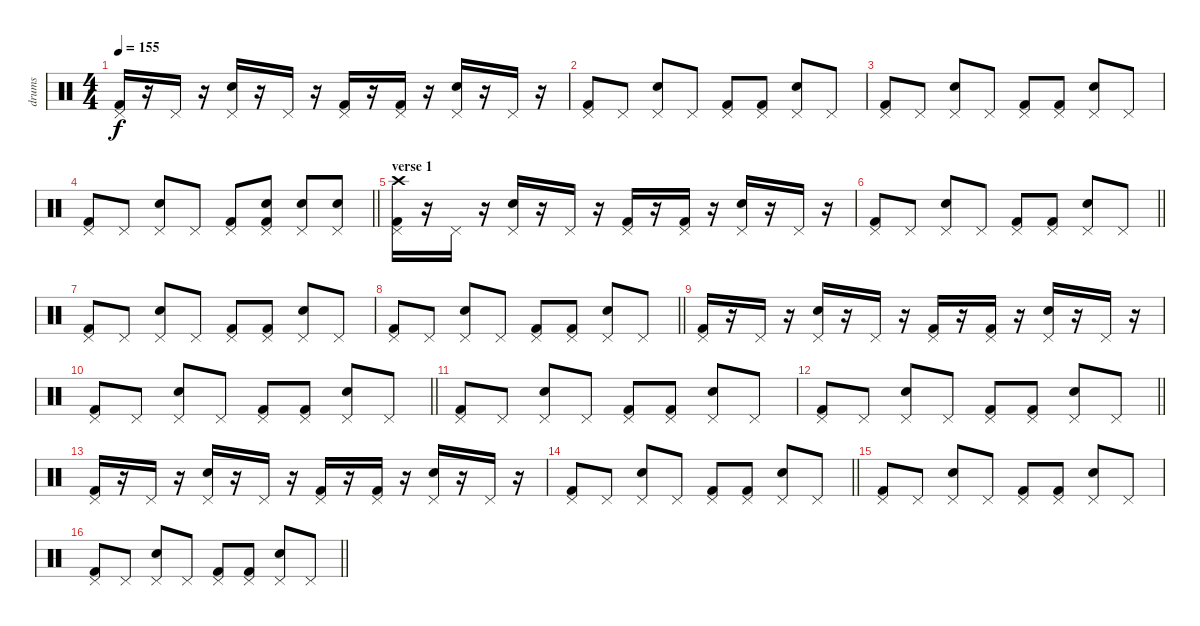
\track ("drums" "drums") {instrument percussion}
\staff {score}
\articulation defaults
\ts (4 4)
\tempo 155
\clef neutral
\ks c
("Kick (hit) 2" "Pedal Hi-Hat (hit)").16{dy f} r.16 "Pedal Hi-Hat (hit)".16 r.16 ("Electric Snare (hit)" "Pedal Hi-Hat (hit)").16 r.16 "Pedal Hi-Hat (hit)".16 r.16 ("Kick (hit) 2" "Pedal Hi-Hat (hit)").16 r.16 ("Kick (hit) 2" "Pedal Hi-Hat (hit)").16 r.16 ("Electric Snare (hit)" "Pedal Hi-Hat (hit)").16 r.16 "Pedal Hi-Hat (hit)".16 r.16 |
("Kick (hit) 2" "Pedal Hi-Hat (hit)").8 "Pedal Hi-Hat (hit)".8 ("Electric Snare (hit)" "Pedal Hi-Hat (hit)").8 "Pedal Hi-Hat (hit)".8 ("Kick (hit) 2" "Pedal Hi-Hat (hit)").8 ("Kick (hit) 2" "Pedal Hi-Hat (hit)").8 ("Electric Snare (hit)" "Pedal Hi-Hat (hit)").8 "Pedal Hi-Hat (hit)".8 |
("Kick (hit) 2" "Pedal Hi-Hat (hit)").8 "Pedal Hi-Hat (hit)".8 ("Electric Snare (hit)" "Pedal Hi-Hat (hit)").8 "Pedal Hi-Hat (hit)".8 ("Kick (hit) 2" "Pedal Hi-Hat (hit)").8 ("Kick (hit) 2" "Pedal Hi-Hat (hit)").8 ("Electric Snare (hit)" "Pedal Hi-Hat (hit)").8 "Pedal Hi-Hat (hit)".8 |
\barLineRight lightlight
("Kick (hit) 2" "Pedal Hi-Hat (hit)").8 "Pedal Hi-Hat (hit)".8 ("Electric Snare (hit)" "Pedal Hi-Hat (hit)").8 "Pedal Hi-Hat (hit)".8 ("Kick (hit) 2" "Pedal Hi-Hat (hit)").8 ("Kick (hit) 2" "Electric Snare (hit)" "Pedal Hi-Hat (hit)").8 ("Electric Snare (hit)" "Pedal Hi-Hat (hit)").8 ("Electric Snare (hit)" "Pedal Hi-Hat (hit)").8 |
\section ("" "verse 1")
("Kick (hit) 2" "Pedal Hi-Hat (hit)" "Crash high (hit)").16 r.16 "Pedal Hi-Hat (hit)".16 r.16 ("Electric Snare (hit)" "Pedal Hi-Hat (hit)").16 r.16 "Pedal Hi-Hat (hit)".16 r.16 ("Kick (hit) 2" "Pedal Hi-Hat (hit)").16 r.16 ("Kick (hit) 2" "Pedal Hi-Hat (hit)").16 r.16 ("Electric Snare (hit)" "Pedal Hi-Hat (hit)").16 r.16 "Pedal Hi-Hat (hit)".16 r.16 |
\barLineRight lightlight
("Kick (hit) 2" "Pedal Hi-Hat (hit)").8 "Pedal Hi-Hat (hit)".8 ("Electric Snare (hit)" "Pedal Hi-Hat (hit)").8 "Pedal Hi-Hat (hit)".8 ("Kick (hit) 2" "Pedal Hi-Hat (hit)").8 ("Kick (hit) 2" "Pedal Hi-Hat (hit)").8 ("Electric Snare (hit)" "Pedal Hi-Hat (hit)").8 "Pedal Hi-Hat (hit)".8 |
("Kick (hit) 2" "Pedal Hi-Hat (hit)").8 "Pedal Hi-Hat (hit)".8 ("Electric Snare (hit)" "Pedal Hi-Hat (hit)").8 "Pedal Hi-Hat (hit)".8 ("Kick (hit) 2" "Pedal Hi-Hat (hit)").8 ("Kick (hit) 2" "Pedal Hi-Hat (hit)").8 ("Electric Snare (hit)" "Pedal Hi-Hat (hit)").8 "Pedal Hi-Hat (hit)".8 |
\barLineRight lightlight
("Kick (hit) 2" "Pedal Hi-Hat (hit)").8 "Pedal Hi-Hat (hit)".8 ("Electric Snare (hit)" "Pedal Hi-Hat (hit)").8 "Pedal Hi-Hat (hit)".8 ("Kick (hit) 2" "Pedal Hi-Hat (hit)").8 ("Kick (hit) 2" "Pedal Hi-Hat (hit)").8 ("Electric Snare (hit)" "Pedal Hi-Hat (hit)").8 "Pedal Hi-Hat (hit)".8 |
("Kick (hit) 2" "Pedal Hi-Hat (hit)").16 r.16 "Pedal Hi-Hat (hit)".16 r.16 ("Electric Snare (hit)" "Pedal Hi-Hat (hit)").16 r.16 "Pedal Hi-Hat (hit)".16 r.16 ("Kick (hit) 2" "Pedal Hi-Hat (hit)").16 r.16 ("Kick (hit) 2" "Pedal Hi-Hat (hit)").16 r.16 ("Electric Snare (hit)" "Pedal Hi-Hat (hit)").16 r.16 "Pedal Hi-Hat (hit)".16 r.16 |
\barLineRight lightlight
("Kick (hit) 2" "Pedal Hi-Hat (hit)").8 "Pedal Hi-Hat (hit)".8 ("Electric Snare (hit)" "Pedal Hi-Hat (hit)").8 "Pedal Hi-Hat (hit)".8 ("Kick (hit) 2" "Pedal Hi-Hat (hit)").8 ("Kick (hit) 2" "Pedal Hi-Hat (hit)").8 ("Electric Snare (hit)" "Pedal Hi-Hat (hit)").8 "Pedal Hi-Hat (hit)".8 |
("Kick (hit) 2" "Pedal Hi-Hat (hit)").8 "Pedal Hi-Hat (hit)".8 ("Electric Snare (hit)" "Pedal Hi-Hat (hit)").8 "Pedal Hi-Hat (hit)".8 ("Kick (hit) 2" "Pedal Hi-Hat (hit)").8 ("Kick (hit) 2" "Pedal Hi-Hat (hit)").8 ("Electric Snare (hit)" "Pedal Hi-Hat (hit)").8 "Pedal Hi-Hat (hit)".8 |
\barLineRight lightlight
("Kick (hit) 2" "Pedal Hi-Hat (hit)").8 "Pedal Hi-Hat (hit)".8 ("Electric Snare (hit)" "Pedal Hi-Hat (hit)").8 "Pedal Hi-Hat (hit)".8 ("Kick (hit) 2" "Pedal Hi-Hat (hit)").8 ("Kick (hit) 2" "Pedal Hi-Hat (hit)").8 ("Electric Snare (hit)" "Pedal Hi-Hat (hit)").8 "Pedal Hi-Hat (hit)".8 |
("Kick (hit) 2" "Pedal Hi-Hat (hit)").16 r.16 "Pedal Hi-Hat (hit)".16 r.16 ("Electric Snare (hit)" "Pedal Hi-Hat (hit)").16 r.16 "Pedal Hi-Hat (hit)".16 r.16 ("Kick (hit) 2" "Pedal Hi-Hat (hit)").16 r.16 ("Kick (hit) 2" "Pedal Hi-Hat (hit)").16 r.16 ("Electric Snare (hit)" "Pedal Hi-Hat (hit)").16 r.16 "Pedal Hi-Hat (hit)".16 r.16 |
\barLineRight lightlight
("Kick (hit) 2" "Pedal Hi-Hat (hit)").8 "Pedal Hi-Hat (hit)".8 ("Electric Snare (hit)" "Pedal Hi-Hat (hit)").8 "Pedal Hi-Hat (hit)".8 ("Kick (hit) 2" "Pedal Hi-Hat (hit)").8 ("Kick (hit) 2" "Pedal Hi-Hat (hit)").8 ("Electric Snare (hit)" "Pedal Hi-Hat (hit)").8 "Pedal Hi-Hat (hit)".8 |
("Kick (hit) 2" "Pedal Hi-Hat (hit)").8 "Pedal Hi-Hat (hit)".8 ("Electric Snare (hit)" "Pedal Hi-Hat (hit)").8 "Pedal Hi-Hat (hit)".8 ("Kick (hit) 2" "Pedal Hi-Hat (hit)").8 ("Kick (hit) 2" "Pedal Hi-Hat (hit)").8 ("Electric Snare (hit)" "Pedal Hi-Hat (hit)").8 "Pedal Hi-Hat (hit)".8 |
\barLineRight lightlight
("Kick (hit) 2" "Pedal Hi-Hat (hit)").8 "Pedal Hi-Hat (hit)".8 ("Electric Snare (hit)" "Pedal Hi-Hat (hit)").8 "Pedal Hi-Hat (hit)".8 ("Kick (hit) 2" "Pedal Hi-Hat (hit)").8 ("Kick (hit) 2" "Pedal Hi-Hat (hit)").8 ("Electric Snare (hit)" "Pedal Hi-Hat (hit)").8 "Pedal Hi-Hat (hit)".8
